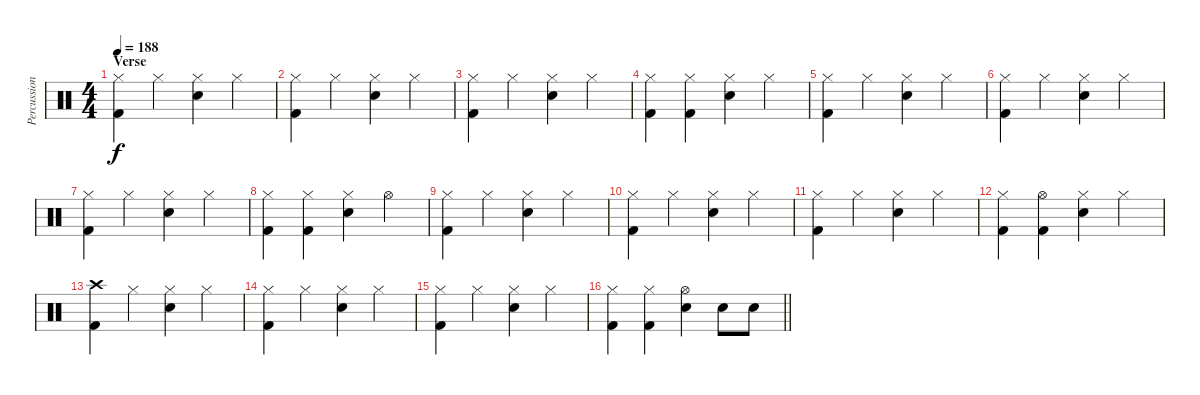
\track ("Percussion" "Percussion") {instrument percussion}
\staff {score}
\articulation defaults
\ts (4 4)
\section ("" "Verse")
\tempo 188
\clef neutral
\ks c
("Hi-Hat (closed)" "Kick (hit) 2").4{dy f} "Hi-Hat (closed)".4 ("Hi-Hat (closed)" "Snare (hit) 2").4 "Hi-Hat (closed)".4 |
("Hi-Hat (closed)" "Kick (hit) 2").4 "Hi-Hat (closed)".4 ("Hi-Hat (closed)" "Snare (hit) 2").4 "Hi-Hat (closed)".4 |
("Hi-Hat (closed)" "Kick (hit) 2").4 "Hi-Hat (closed)".4 ("Hi-Hat (closed)" "Snare (hit) 2").4 "Hi-Hat (closed)".4 |
("Hi-Hat (closed)" "Kick (hit) 2").4 ("Hi-Hat (closed)" "Kick (hit) 2").4 ("Hi-Hat (closed)" "Snare (hit) 2").4 "Hi-Hat (closed)".4 |
("Hi-Hat (closed)" "Kick (hit) 2").4 "Hi-Hat (closed)".4 ("Hi-Hat (closed)" "Snare (hit) 2").4 "Hi-Hat (closed)".4 |
("Hi-Hat (closed)" "Kick (hit) 2").4 "Hi-Hat (closed)".4 ("Hi-Hat (closed)" "Snare (hit) 2").4 "Hi-Hat (closed)".4 |
("Hi-Hat (closed)" "Kick (hit) 2").4 "Hi-Hat (closed)".4 ("Hi-Hat (closed)" "Snare (hit) 2").4 "Hi-Hat (closed)".4 |
("Hi-Hat (closed)" "Kick (hit) 2").4 ("Hi-Hat (closed)" "Kick (hit) 2").4 ("Hi-Hat (closed)" "Snare (hit) 2").4 "Hi-Hat (open)".4 |
("Hi-Hat (closed)" "Kick (hit) 2").4 "Hi-Hat (closed)".4 ("Hi-Hat (closed)" "Snare (hit) 2").4 "Hi-Hat (closed)".4 |
("Hi-Hat (closed)" "Kick (hit) 2").4 "Hi-Hat (closed)".4 ("Hi-Hat (closed)" "Snare (hit) 2").4 "Hi-Hat (closed)".4 |
("Hi-Hat (closed)" "Kick (hit) 2").4 "Hi-Hat (closed)".4 ("Hi-Hat (closed)" "Snare (hit) 2").4 "Hi-Hat (closed)".4 |
("Hi-Hat (closed)" "Kick (hit) 2").4 ("Hi-Hat (open)" "Kick (hit) 2").4 ("Hi-Hat (closed)" "Snare (hit) 2").4 "Hi-Hat (closed)".4 |
("Crash high (hit)" "Kick (hit) 2").4 "Hi-Hat (closed)".4 ("Snare (hit) 2" "Hi-Hat (closed)").4 "Hi-Hat (closed)".4 |
("Hi-Hat (closed)" "Kick (hit) 2").4 "Hi-Hat (closed)".4 ("Hi-Hat (closed)" "Snare (hit) 2").4 "Hi-Hat (closed)".4 |
("Hi-Hat (closed)" "Kick (hit) 2").4 "Hi-Hat (closed)".4 ("Hi-Hat (closed)" "Snare (hit) 2").4 "Hi-Hat (closed)".4 |
\barLineRight lightlight
("Hi-Hat (closed)" "Kick (hit) 2").4 ("Hi-Hat (closed)" "Kick (hit) 2").4 ("Hi-Hat (open)" "Snare (hit) 2").4 "Snare (hit) 2".8 "Snare (hit) 2".8
